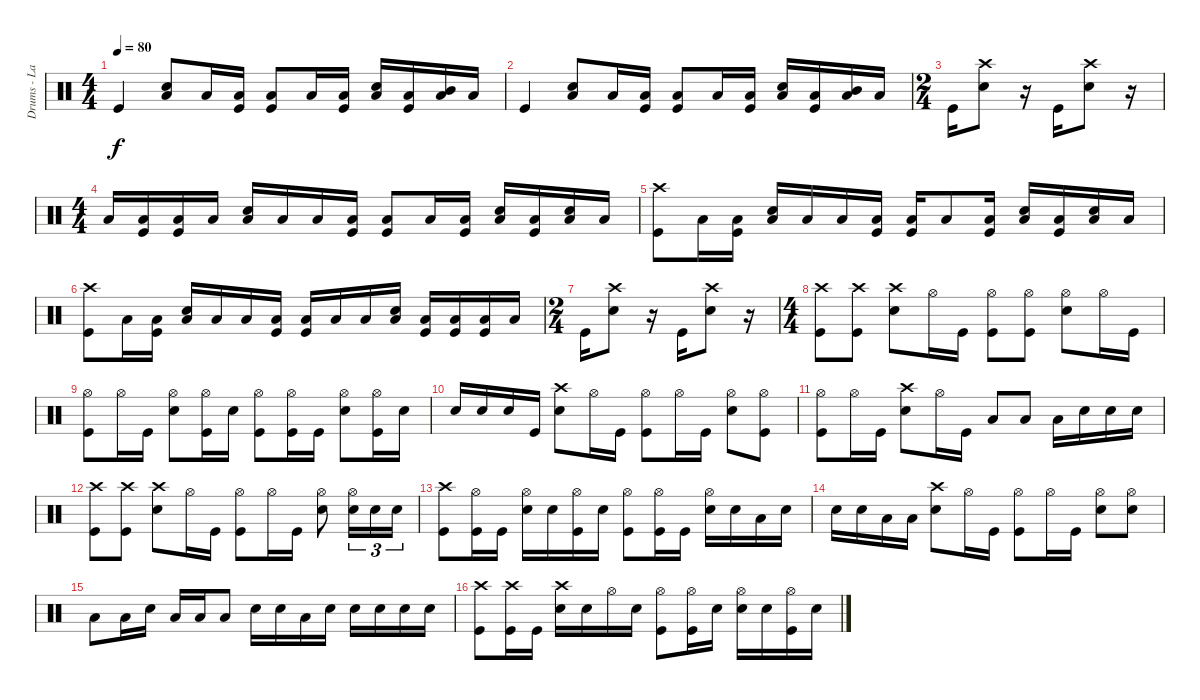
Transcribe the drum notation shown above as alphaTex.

\track ("Drums - Lars" "Drums - La") {instrument percussion}
\staff {score}
\articulation defaults
\ts (4 4)
\tempo 80
\clef neutral
\ks c "Kick (hit)".4{dy f}
("Snare (hit) 2" "Low Floor Tom (hit)").8 "Low Floor Tom (hit)".16 ("Low Floor Tom (hit)" "Kick (hit)").16 ("Low Floor Tom (hit)" "Kick (hit)").8 "Low Floor Tom (hit)".16 ("Low Floor Tom (hit)" "Kick (hit)").16 ("Snare (hit) 2" "Low Floor Tom (hit)").16 ("Low Floor Tom (hit)" "Kick (hit)").16 ("Mid Tom (hit)" "Low Floor Tom (hit)").16 "Low Floor Tom (hit)".16 |
"Kick (hit)".4 ("Snare (hit) 2" "Low Floor Tom (hit)").8 "Low Floor Tom (hit)".16 ("Low Floor Tom (hit)" "Kick (hit)").16 ("Low Floor Tom (hit)" "Kick (hit)").8 "Low Floor Tom (hit)".16 ("Low Floor Tom (hit)" "Kick (hit)").16 ("Snare (hit) 2" "Low Floor Tom (hit)").16 ("Low Floor Tom (hit)" "Kick (hit)").16 ("Mid Tom (hit)" "Low Floor Tom (hit)").16 "Low Floor Tom (hit)".16 |
\ts (2 4)
"Kick (hit)".16 ("Crash high (hit)" "Snare (hit) 2").8 r.16 "Kick (hit)".16 ("Crash high (hit)" "Snare (hit) 2").8 r.16 |
\ts (4 4)
"Low Floor Tom (hit)".16 ("Low Floor Tom (hit)" "Kick (hit)").16 ("Low Floor Tom (hit)" "Kick (hit)").16 "Low Floor Tom (hit)".16 ("Snare (hit) 2" "Low Floor Tom (hit)").16 "Low Floor Tom (hit)".16 "Low Floor Tom (hit)".16 ("Low Floor Tom (hit)" "Kick (hit)").16 ("Low Floor Tom (hit)" "Kick (hit)").8 "Low Floor Tom (hit)".16 ("Low Floor Tom (hit)" "Kick (hit)").16 ("Snare (hit) 2" "Low Floor Tom (hit)").16 ("Low Floor Tom (hit)" "Kick (hit)").16 ("Snare (hit) 2" "Low Floor Tom (hit)").16 "Low Floor Tom (hit)".16 |
("Crash high (hit)" "Kick (hit)").8 "Low Floor Tom (hit)".16 ("Low Floor Tom (hit)" "Kick (hit)").16 ("Snare (hit) 2" "Low Floor Tom (hit)").16 "Low Floor Tom (hit)".16 "Low Floor Tom (hit)".16 ("Low Floor Tom (hit)" "Kick (hit)").16 ("Low Floor Tom (hit)" "Kick (hit)").16 "Low Floor Tom (hit)".8 ("Low Floor Tom (hit)" "Kick (hit)").16 ("Snare (hit) 2" "Low Floor Tom (hit)").16 ("Low Floor Tom (hit)" "Kick (hit)").16 ("Snare (hit) 2" "Low Floor Tom (hit)").16 "Low Floor Tom (hit)".16 |
("Crash high (hit)" "Kick (hit)").8 "Low Floor Tom (hit)".16 ("Low Floor Tom (hit)" "Kick (hit)").16 ("Snare (hit) 2" "Low Floor Tom (hit)").16 "Low Floor Tom (hit)".16 "Low Floor Tom (hit)".16 ("Low Floor Tom (hit)" "Kick (hit)").16 ("Low Floor Tom (hit)" "Kick (hit)").16 "Low Floor Tom (hit)".16 "Low Floor Tom (hit)".16 ("Snare (hit) 2" "Low Floor Tom (hit)").16 ("Low Floor Tom (hit)" "Kick (hit)").16 ("Low Floor Tom (hit)" "Kick (hit)").16 ("Low Floor Tom (hit)" "Kick (hit)").16 "Low Floor Tom (hit)".16 |
\ts (2 4)
"Kick (hit)".16 ("Crash high (hit)" "Snare (hit) 2").8 r.16 "Kick (hit)".16 ("Crash high (hit)" "Snare (hit) 2").8 r.16 |
\ts (4 4)
("Crash high (hit)" "Kick (hit)").8 ("Crash high (hit)" "Kick (hit)").8 ("Crash high (hit)" "Snare (hit) 2").8 "Hi-Hat (open)".16 "Kick (hit)".16 ("Hi-Hat (open)" "Kick (hit)").8 ("Hi-Hat (open)" "Kick (hit)").8 ("Hi-Hat (open)" "Snare (hit) 2").8 "Hi-Hat (open)".16 "Kick (hit)".16 |
("Hi-Hat (open)" "Kick (hit)").8 "Hi-Hat (open)".16 "Kick (hit)".16 ("Hi-Hat (open)" "Snare (hit) 2").8 ("Hi-Hat (open)" "Kick (hit)").16 "Snare (hit) 2".16 ("Hi-Hat (open)" "Kick (hit)").8 ("Hi-Hat (open)" "Kick (hit)").16 "Kick (hit)".16 ("Hi-Hat (open)" "Snare (hit) 2").8 ("Hi-Hat (open)" "Kick (hit)").16 "Snare (hit) 2".16 |
"Snare (hit) 2".16 "Snare (hit) 2".16 "Snare (hit) 2".16 "Kick (hit)".16 ("Crash high (hit)" "Snare (hit) 2").8 "Hi-Hat (open)".16 "Kick (hit)".16 ("Hi-Hat (open)" "Kick (hit)").8 "Hi-Hat (open)".16 "Kick (hit)".16 ("Hi-Hat (open)" "Snare (hit) 2").8 ("Hi-Hat (open)" "Kick (hit)").8 |
("Hi-Hat (open)" "Kick (hit)").8 "Hi-Hat (open)".16 "Kick (hit)".16 ("Crash high (hit)" "Snare (hit) 2").8 "Hi-Hat (open)".16 "Kick (hit)".16 "Low Floor Tom (hit)".8 "Low Floor Tom (hit)".8 "Low Tom (hit)".16 "Snare (hit) 2".16 "Snare (hit) 2".16 "Snare (hit) 2".16 |
("Crash high (hit)" "Kick (hit)").8 ("Crash high (hit)" "Kick (hit)").8 ("Crash high (hit)" "Snare (hit) 2").8 "Hi-Hat (open)".16 "Kick (hit)".16 ("Hi-Hat (open)" "Kick (hit)").8 "Hi-Hat (open)".16 "Kick (hit)".16 ("Hi-Hat (open)" "Snare (hit) 2").8 ("Hi-Hat (open)" "Snare (hit) 2").16{tu (3 2)} "Snare (hit) 2".16{tu (3 2)} "Snare (hit) 2".16{tu (3 2)} |
("Crash high (hit)" "Kick (hit)").8 ("Hi-Hat (open)" "Kick (hit)").16 "Kick (hit)".16 ("Hi-Hat (open)" "Snare (hit) 2").16 "Snare (hit) 2".16 ("Hi-Hat (open)" "Kick (hit)").16 "Snare (hit) 2".16 ("Hi-Hat (open)" "Kick (hit)").8 ("Hi-Hat (open)" "Kick (hit)").16 "Kick (hit)".16 ("Hi-Hat (open)" "Snare (hit) 2").16 "Snare (hit) 2".16 "Low Tom (hit)".16 "Snare (hit) 2".16 |
"Snare (hit) 2".16 "Snare (hit) 2".16 "Low Tom (hit)".16 "Low Tom (hit)".16 ("Crash high (hit)" "Snare (hit) 2").8 "Hi-Hat (open)".16 "Kick (hit)".16 ("Hi-Hat (open)" "Kick (hit)").8 "Hi-Hat (open)".16 "Kick (hit)".16 ("Hi-Hat (open)" "Snare (hit) 2").8 ("Hi-Hat (open)" "Snare (hit) 2").8 |
"Low Floor Tom (hit)".8 "Low Floor Tom (hit)".16 "Snare (hit) 2".16 "Low Tom (hit)".16 "Low Tom (hit)".16 "Low Floor Tom (hit)".8 "Snare (hit) 2".16 "Snare (hit) 2".16 "Low Tom (hit)".16 "Snare (hit) 2".16 "Snare (hit) 2".16 "Snare (hit) 2".16 "Snare (hit) 2".16 "Snare (hit) 2".16 |
("Crash high (hit)" "Kick (hit)").8 ("Crash high (hit)" "Kick (hit)").16 "Kick (hit)".16 ("Crash high (hit)" "Snare (hit) 2").16 "Snare (hit) 2".16 "Hi-Hat (open)".16 "Snare (hit) 2".16 ("Hi-Hat (open)" "Kick (hit)").8 ("Hi-Hat (open)" "Kick (hit)").16 "Snare (hit) 2".16 ("Hi-Hat (open)" "Snare (hit) 2").16 "Snare (hit) 2".16 ("Hi-Hat (open)" "Kick (hit)").16 "Snare (hit) 2".16
